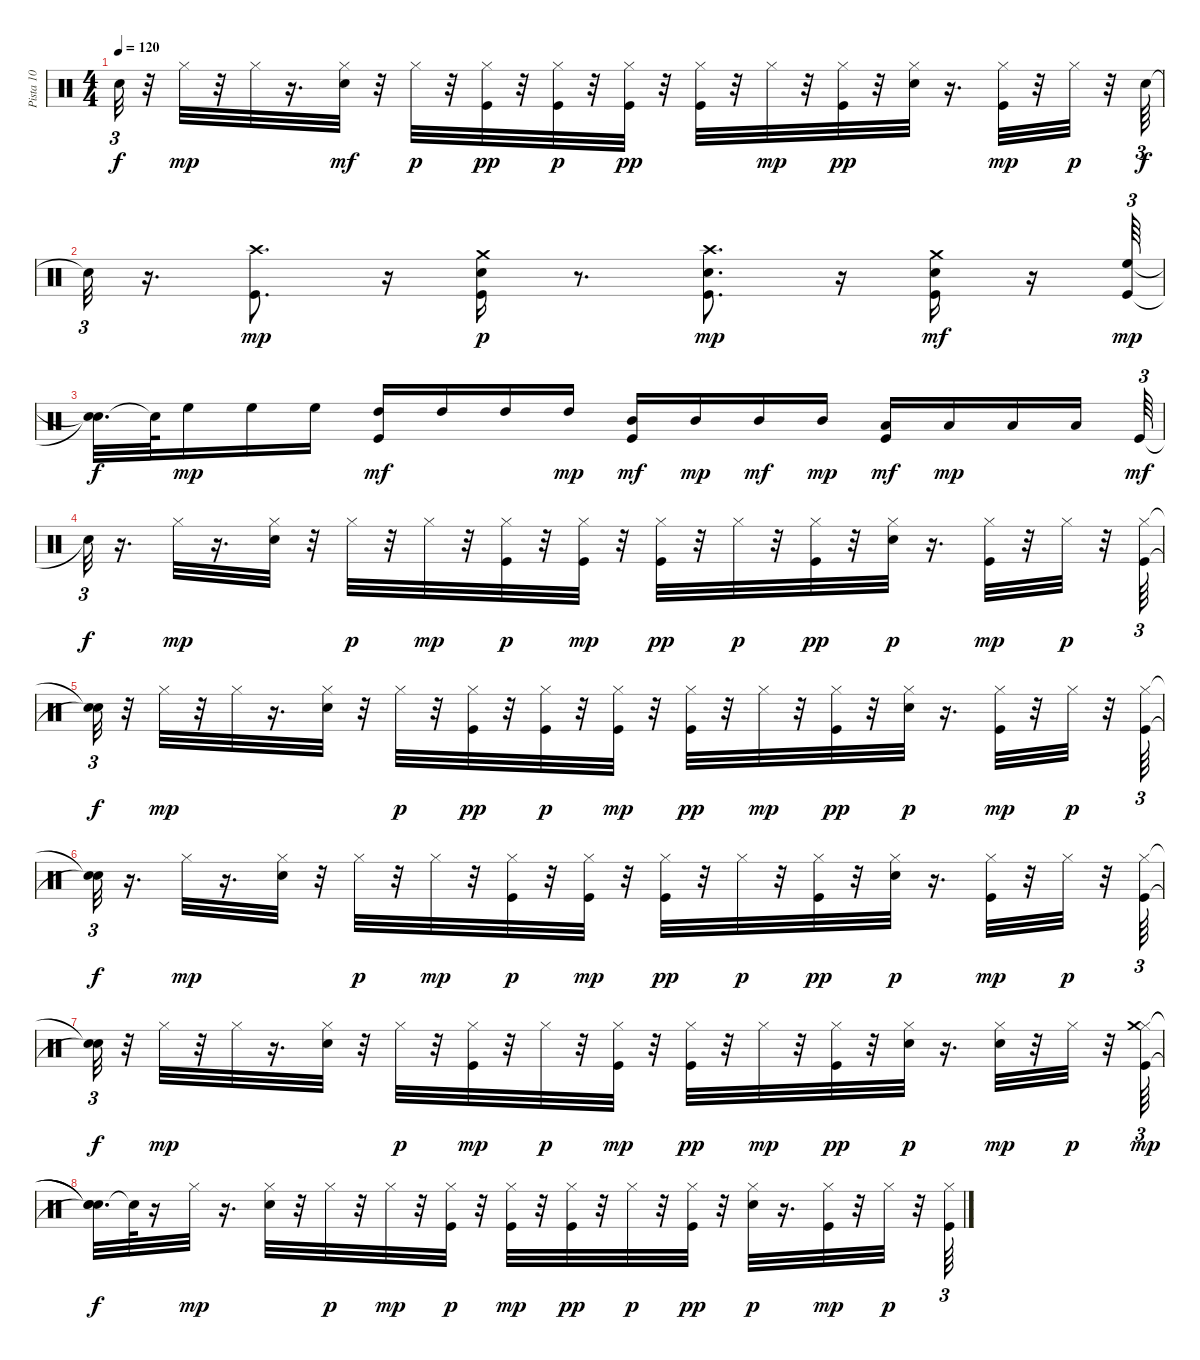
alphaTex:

\track ("Pista 10" "Pista 10") {instrument percussion}
\staff {score}
\articulation defaults
\ts (4 4)
\tempo 120
\clef neutral
\ks c "Snare (hit)"{t}.32{tu (3 2) dy f}
r.32 "Hi-Hat (closed)".32{dy mp} r.32 "Hi-Hat (closed)".32 r.16{d} ("Hi-Hat (closed)" "Snare (hit) 2").32{dy mf} r.32 "Hi-Hat (closed)".32{dy p} r.32 ("Hi-Hat (closed)" "Kick (hit)").32{dy pp} r.32 ("Kick (hit)" "Hi-Hat (closed)").32{dy p} r.32 ("Kick (hit)" "Hi-Hat (closed)").32{dy pp} r.32 ("Hi-Hat (closed)" "Kick (hit)").32 r.32 "Hi-Hat (closed)".32{dy mp} r.32 ("Hi-Hat (closed)" "Kick (hit)").32{dy pp} r.32 ("Snare (hit) 2" "Hi-Hat (closed)").32 r.16{d} ("Kick (hit)" "Hi-Hat (closed)").32{dy mp} r.32 "Hi-Hat (closed)".32{dy p} r.32 "Snare (hit) 2".64{tu (3 2) dy f} |
"Snare (hit)"{t}.32{tu (3 2)} r.16{d} ("Kick (hit)" "Crash high (hit)").8{d dy mp} r.16 ("Kick (hit)" "Crash medium (hit)" "Snare (hit) 2").16{dy p} r.8{d} ("Kick (hit)" "Crash high (hit)" "Snare (hit) 2").8{d dy mp} r.16 ("Kick (hit)" "Crash medium (hit)" "Snare (hit) 2").16{dy mf} r.16 ("Kick (hit)" "High Floor Tom (hit)").64{tu (3 2) dy mp} |
("Snare (hit)"{t} "Snare (hit)"{t}).32{d dy f} "Snare (hit)"{t}.64 "High Floor Tom (hit)".16{dy mp} "High Floor Tom (hit)".16 "High Floor Tom (hit)".16 ("Kick (hit)" "High Tom (hit)").16{dy mf} "High Tom (hit)".16 "High Tom (hit)".16 "High Tom (hit)".16{dy mp} ("Kick (hit)" "Mid Tom (hit)").16{dy mf} "Mid Tom (hit)".16{dy mp} "Mid Tom (hit)".16{dy mf} "Mid Tom (hit)".16{dy mp} ("Kick (hit)" "Low Tom (hit)").16{dy mf} "Low Tom (hit)".16{dy mp} "Low Tom (hit)".16 "Low Tom (hit)".16 "Kick (hit)".64{tu (3 2) dy mf} |
"Snare (hit)"{t}.32{tu (3 2) dy f} r.16{d} "Hi-Hat (closed)".32{dy mp} r.16{d} ("Hi-Hat (closed)" "Snare (hit) 2").32 r.32 "Hi-Hat (closed)".32{dy p} r.32 "Hi-Hat (closed)".32{dy mp} r.32 ("Kick (hit)" "Hi-Hat (closed)").32{dy p} r.32 ("Kick (hit)" "Hi-Hat (closed)").32{dy mp} r.32 ("Hi-Hat (closed)" "Kick (hit)").32{dy pp} r.32 "Hi-Hat (closed)".32{dy p} r.32 ("Hi-Hat (closed)" "Kick (hit)").32{dy pp} r.32 ("Hi-Hat (closed)" "Snare (hit) 2").32{dy p} r.16{d} ("Hi-Hat (closed)" "Kick (hit)").32{dy mp} r.32 "Hi-Hat (closed)".32{dy p} r.32 ("Kick (hit)" "Hi-Hat (closed)").64{tu (3 2)} |
("Snare (hit)"{t} "Snare (hit)"{t}).32{tu (3 2) dy f} r.32 "Hi-Hat (closed)".32{dy mp} r.32 "Hi-Hat (closed)".32 r.16{d} ("Hi-Hat (closed)" "Snare (hit) 2").32 r.32 "Hi-Hat (closed)".32{dy p} r.32 ("Hi-Hat (closed)" "Kick (hit)").32{dy pp} r.32 ("Kick (hit)" "Hi-Hat (closed)").32{dy p} r.32 ("Kick (hit)" "Hi-Hat (closed)").32{dy mp} r.32 ("Hi-Hat (closed)" "Kick (hit)").32{dy pp} r.32 "Hi-Hat (closed)".32{dy mp} r.32 ("Hi-Hat (closed)" "Kick (hit)").32{dy pp} r.32 ("Snare (hit) 2" "Hi-Hat (closed)").32{dy p} r.16{d} ("Kick (hit)" "Hi-Hat (closed)").32{dy mp} r.32 "Hi-Hat (closed)".32{dy p} r.32 ("Kick (hit)" "Hi-Hat (closed)").64{tu (3 2)} |
("Snare (hit)"{t} "Snare (hit)"{t}).32{tu (3 2) dy f} r.16{d} "Hi-Hat (closed)".32{dy mp} r.16{d} ("Hi-Hat (closed)" "Snare (hit) 2").32 r.32 "Hi-Hat (closed)".32{dy p} r.32 "Hi-Hat (closed)".32{dy mp} r.32 ("Kick (hit)" "Hi-Hat (closed)").32{dy p} r.32 ("Kick (hit)" "Hi-Hat (closed)").32{dy mp} r.32 ("Hi-Hat (closed)" "Kick (hit)").32{dy pp} r.32 "Hi-Hat (closed)".32{dy p} r.32 ("Hi-Hat (closed)" "Kick (hit)").32{dy pp} r.32 ("Hi-Hat (closed)" "Snare (hit) 2").32{dy p} r.16{d} ("Hi-Hat (closed)" "Kick (hit)").32{dy mp} r.32 "Hi-Hat (closed)".32{dy p} r.32 ("Kick (hit)" "Hi-Hat (closed)").64{tu (3 2)} |
("Snare (hit)"{t} "Snare (hit)"{t}).32{tu (3 2) dy f} r.32 "Hi-Hat (closed)".32{dy mp} r.32 "Hi-Hat (closed)".32 r.16{d} ("Hi-Hat (closed)" "Snare (hit) 2").32 r.32 "Hi-Hat (closed)".32{dy p} r.32 ("Kick (hit)" "Hi-Hat (closed)").32{dy mp} r.32 "Hi-Hat (closed)".32{dy p} r.32 ("Kick (hit)" "Hi-Hat (closed)").32{dy mp} r.32 ("Kick (hit)" "Hi-Hat (closed)").32{dy pp} r.32 "Hi-Hat (closed)".32{dy mp} r.32 ("Kick (hit)" "Hi-Hat (closed)").32{dy pp} r.32 ("Hi-Hat (closed)" "Snare (hit) 2").32{dy p} r.16{d} ("Hi-Hat (closed)" "Snare (hit) 2").32{dy mp} r.32 "Hi-Hat (closed)".32{dy p} r.32 ("Kick (hit)" "Hi-Hat (closed)" "Crash medium (hit)").64{tu (3 2) dy mp} |
("Snare (hit)"{t} "Snare (hit)"{t} "Snare (hit)"{t}).32{d dy f} "Snare (hit)"{t}.64 r.16 "Hi-Hat (closed)".32{dy mp} r.16{d} ("Hi-Hat (closed)" "Snare (hit) 2").32 r.32 "Hi-Hat (closed)".32{dy p} r.32 "Hi-Hat (closed)".32{dy mp} r.32 ("Kick (hit)" "Hi-Hat (closed)").32{dy p} r.32 ("Kick (hit)" "Hi-Hat (closed)").32{dy mp} r.32 ("Hi-Hat (closed)" "Kick (hit)").32{dy pp} r.32 "Hi-Hat (closed)".32{dy p} r.32 ("Hi-Hat (closed)" "Kick (hit)").32{dy pp} r.32 ("Hi-Hat (closed)" "Snare (hit) 2").32{dy p} r.16{d} ("Hi-Hat (closed)" "Kick (hit)").32{dy mp} r.32 "Hi-Hat (closed)".32{dy p} r.32 ("Kick (hit)" "Hi-Hat (closed)").64{tu (3 2)}
